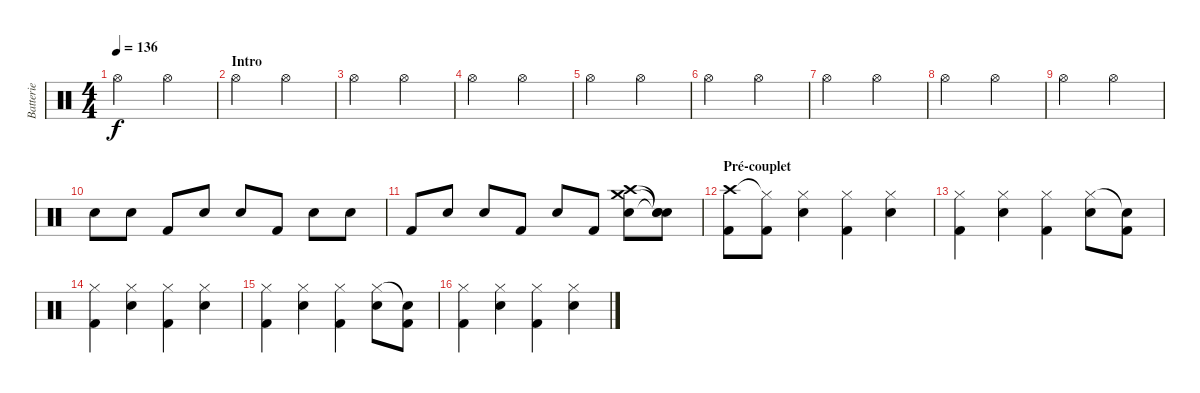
\track ("Batterie" "Batterie") {instrument percussion}
\staff {score}
\articulation defaults
\ts (4 4)
\tempo 136
\clef neutral
\ks c "Hi-Hat (open)".2{dy f} "Hi-Hat (open)".2
|
\section ("" "Intro")
"Hi-Hat (open)".2 "Hi-Hat (open)".2 |
"Hi-Hat (open)".2 "Hi-Hat (open)".2 |
"Hi-Hat (open)".2 "Hi-Hat (open)".2 |
"Hi-Hat (open)".2 "Hi-Hat (open)".2 |
"Hi-Hat (open)".2 "Hi-Hat (open)".2 |
"Hi-Hat (open)".2 "Hi-Hat (open)".2 |
"Hi-Hat (open)".2 "Hi-Hat (open)".2 |
"Hi-Hat (open)".2 "Hi-Hat (open)".2 |
"Snare (hit) 2".8 "Snare (hit) 2".8 "Kick (hit) 2".8 "Snare (hit) 2".8 "Snare (hit) 2".8 "Kick (hit) 2".8 "Snare (hit) 2".8 "Snare (hit) 2".8 |
"Kick (hit) 2".8 "Snare (hit) 2".8 "Snare (hit) 2".8 "Kick (hit) 2".8 "Snare (hit) 2".8 "Kick (hit) 2".8 ("Crash high (hit)" "Crash medium (hit)" "Snare (hit) 2").8 ("Snare (hit)"{t} "Snare (hit)"{t} "Snare (hit)"{t}).8 |
\section ("" "Pré-couplet")
("Crash high (hit)" "Kick (hit) 2").8 ("Hi-Hat (closed)"{t} "Kick (hit) 2").8 ("Hi-Hat (closed)" "Snare (hit) 2").4 ("Hi-Hat (closed)" "Kick (hit) 2").4 ("Hi-Hat (closed)" "Snare (hit) 2").4 |
("Hi-Hat (closed)" "Kick (hit) 2").4 ("Hi-Hat (closed)" "Snare (hit) 2").4 ("Hi-Hat (closed)" "Kick (hit) 2").4 ("Hi-Hat (closed)" "Snare (hit) 2").8 ("Snare (hit)"{t} "Kick (hit) 2").8 |
("Hi-Hat (closed)" "Kick (hit) 2").4 ("Hi-Hat (closed)" "Snare (hit) 2").4 ("Hi-Hat (closed)" "Kick (hit) 2").4 ("Hi-Hat (closed)" "Snare (hit) 2").4 |
("Hi-Hat (closed)" "Kick (hit) 2").4 ("Hi-Hat (closed)" "Snare (hit) 2").4 ("Hi-Hat (closed)" "Kick (hit) 2").4 ("Hi-Hat (closed)" "Snare (hit) 2").8 ("Snare (hit)"{t} "Kick (hit) 2").8 |
("Hi-Hat (closed)" "Kick (hit) 2").4 ("Hi-Hat (closed)" "Snare (hit) 2").4 ("Hi-Hat (closed)" "Kick (hit) 2").4 ("Hi-Hat (closed)" "Snare (hit) 2").4
